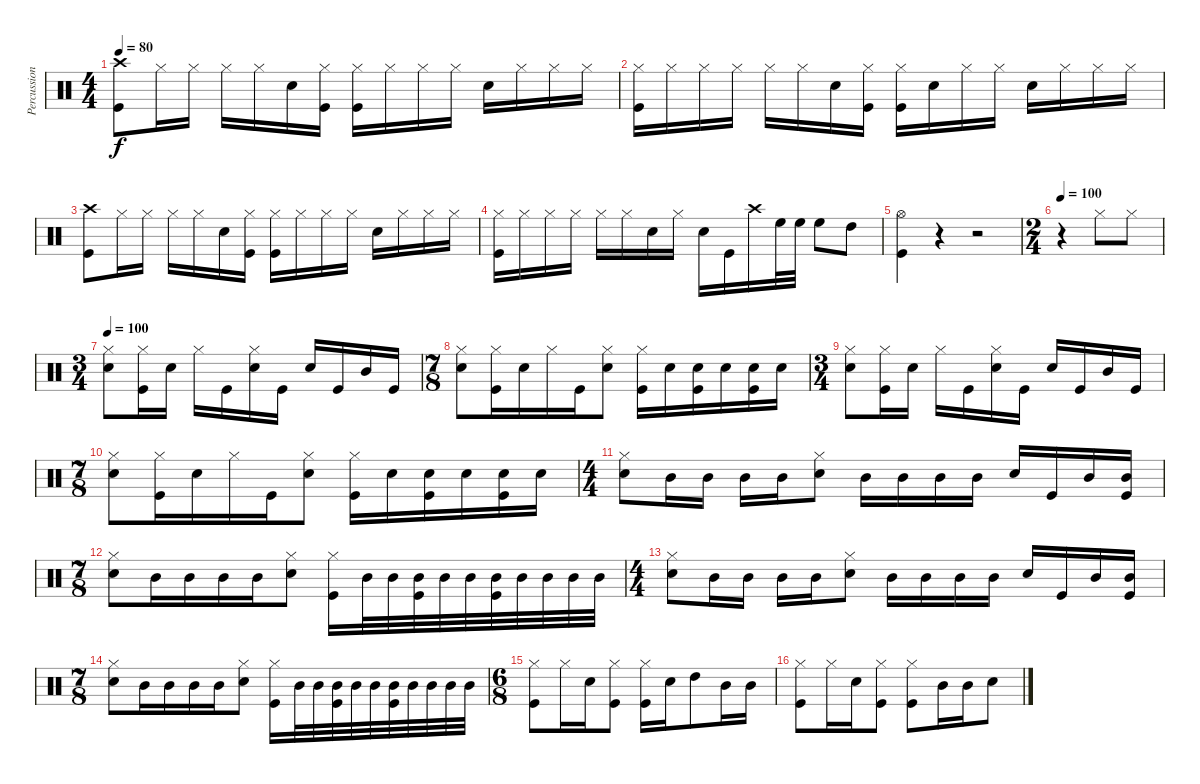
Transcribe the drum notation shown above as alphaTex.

\track ("Percussion" "Percussion") {instrument percussion}
\staff {score}
\articulation defaults
\ts (4 4)
\tempo 80
\clef neutral
\ks c
("Crash high (hit)" "Kick (hit)").8{dy f} "Hi-Hat (closed)".16 "Hi-Hat (closed)".16 "Hi-Hat (closed)".16 "Hi-Hat (closed)".16 "Snare (hit) 2".16 ("Hi-Hat (closed)" "Kick (hit)").16 ("Hi-Hat (closed)" "Kick (hit)").16 "Hi-Hat (closed)".16 "Hi-Hat (closed)".16 "Hi-Hat (closed)".16 "Snare (hit) 2".16 "Hi-Hat (closed)".16 "Hi-Hat (closed)".16 "Hi-Hat (closed)".16 |
("Hi-Hat (closed)" "Kick (hit)").16 "Hi-Hat (closed)".16 "Hi-Hat (closed)".16 "Hi-Hat (closed)".16 "Hi-Hat (closed)".16 "Hi-Hat (closed)".16 "Snare (hit) 2".16 ("Hi-Hat (closed)" "Kick (hit)").16 ("Hi-Hat (closed)" "Kick (hit)").16 "Snare (hit) 2".16 "Hi-Hat (closed)".16 "Hi-Hat (closed)".16 "Snare (hit) 2".16 "Hi-Hat (closed)".16 "Hi-Hat (closed)".16 "Hi-Hat (closed)".16 |
("Crash high (hit)" "Kick (hit)").8 "Hi-Hat (closed)".16 "Hi-Hat (closed)".16 "Hi-Hat (closed)".16 "Hi-Hat (closed)".16 "Snare (hit) 2".16 ("Hi-Hat (closed)" "Kick (hit)").16 ("Hi-Hat (closed)" "Kick (hit)").16 "Hi-Hat (closed)".16 "Hi-Hat (closed)".16 "Hi-Hat (closed)".16 "Snare (hit) 2".16 "Hi-Hat (closed)".16 "Hi-Hat (closed)".16 "Hi-Hat (closed)".16 |
("Hi-Hat (closed)" "Kick (hit)").16 "Hi-Hat (closed)".16 "Hi-Hat (closed)".16 "Hi-Hat (closed)".16 "Hi-Hat (closed)".16 "Hi-Hat (closed)".16 "Snare (hit) 2".16 "Hi-Hat (closed)".16 "Snare (hit) 2".16 "Kick (hit)".16 "Crash high (hit)".16 "High Floor Tom (hit)".32 "High Floor Tom (hit)".32 "High Floor Tom (hit)".8 "High Tom (hit)".8 |
("Hi-Hat (open)" "Kick (hit)").4 r.4 r.2 |
\ts (2 4)
\tempo 100
r.4 "Hi-Hat (closed)".8 "Hi-Hat (closed)".8 |
\ts (3 4)
\tempo 100
("Hi-Hat (closed)" "Snare (hit) 2").8 ("Hi-Hat (closed)" "Kick (hit)").16 "Snare (hit) 2".16 "Hi-Hat (closed)".16 "Kick (hit)".16 ("Hi-Hat (closed)" "Snare (hit) 2").16 "Kick (hit)".16 "Snare (hit) 2".16 "Kick (hit)".16 "Mid Tom (hit)".16 "Kick (hit)".16 |
\ts (7 8)
("Hi-Hat (closed)" "Snare (hit) 2").8 ("Hi-Hat (closed)" "Kick (hit)").16 "Snare (hit) 2".16 "Hi-Hat (closed)".16 "Kick (hit)".16 ("Hi-Hat (closed)" "Snare (hit) 2").8 ("Hi-Hat (closed)" "Kick (hit)").16 "Snare (hit) 2".16 ("Snare (hit) 2" "Kick (hit)").16 "Snare (hit) 2".16 ("Snare (hit) 2" "Kick (hit)").16 "Snare (hit) 2".16 |
\ts (3 4)
("Hi-Hat (closed)" "Snare (hit) 2").8 ("Hi-Hat (closed)" "Kick (hit)").16 "Snare (hit) 2".16 "Hi-Hat (closed)".16 "Kick (hit)".16 ("Hi-Hat (closed)" "Snare (hit) 2").16 "Kick (hit)".16 "Snare (hit) 2".16 "Kick (hit)".16 "Mid Tom (hit)".16 "Kick (hit)".16 |
\ts (7 8)
("Hi-Hat (closed)" "Snare (hit) 2").8 ("Hi-Hat (closed)" "Kick (hit)").16 "Snare (hit) 2".16 "Hi-Hat (closed)".16 "Kick (hit)".16 ("Hi-Hat (closed)" "Snare (hit) 2").8 ("Hi-Hat (closed)" "Kick (hit)").16 "Snare (hit) 2".16 ("Snare (hit) 2" "Kick (hit)").16 "Snare (hit) 2".16 ("Snare (hit) 2" "Kick (hit)").16 "Snare (hit) 2".16 |
\ts (4 4)
("Hi-Hat (closed)" "Snare (hit) 2").8 "Mid Tom (hit)".16 "Mid Tom (hit)".16 "Mid Tom (hit)".16 "Mid Tom (hit)".16 ("Hi-Hat (closed)" "Snare (hit) 2").8 "Mid Tom (hit)".16 "Mid Tom (hit)".16 "Mid Tom (hit)".16 "Mid Tom (hit)".16 "Snare (hit) 2".16 "Kick (hit)".16 "Mid Tom (hit)".16 ("Mid Tom (hit)" "Kick (hit)").16 |
\ts (7 8)
("Hi-Hat (closed)" "Snare (hit) 2").8 "Mid Tom (hit)".16 "Mid Tom (hit)".16 "Mid Tom (hit)".16 "Mid Tom (hit)".16 ("Hi-Hat (closed)" "Snare (hit) 2").8 ("Hi-Hat (closed)" "Kick (hit)").16 "Mid Tom (hit)".32 "Mid Tom (hit)".32 ("Mid Tom (hit)" "Kick (hit)").32 "Mid Tom (hit)".32 "Mid Tom (hit)".32 ("Mid Tom (hit)" "Kick (hit)").32 "Mid Tom (hit)".32 "Mid Tom (hit)".32 "Mid Tom (hit)".32 "Mid Tom (hit)".32 |
\ts (4 4)
("Hi-Hat (closed)" "Snare (hit) 2").8 "Mid Tom (hit)".16 "Mid Tom (hit)".16 "Mid Tom (hit)".16 "Mid Tom (hit)".16 ("Hi-Hat (closed)" "Snare (hit) 2").8 "Mid Tom (hit)".16 "Mid Tom (hit)".16 "Mid Tom (hit)".16 "Mid Tom (hit)".16 "Snare (hit) 2".16 "Kick (hit)".16 "Mid Tom (hit)".16 ("Mid Tom (hit)" "Kick (hit)").16 |
\ts (7 8)
("Hi-Hat (closed)" "Snare (hit) 2").8 "Mid Tom (hit)".16 "Mid Tom (hit)".16 "Mid Tom (hit)".16 "Mid Tom (hit)".16 ("Hi-Hat (closed)" "Snare (hit) 2").8 ("Hi-Hat (closed)" "Kick (hit)").16 "Mid Tom (hit)".32 "Mid Tom (hit)".32 ("Mid Tom (hit)" "Kick (hit)").32 "Mid Tom (hit)".32 "Mid Tom (hit)".32 ("Mid Tom (hit)" "Kick (hit)").32 "Mid Tom (hit)".32 "Mid Tom (hit)".32 "Mid Tom (hit)".32 "Mid Tom (hit)".32 |
\ts (6 8)
("Hi-Hat (closed)" "Kick (hit)").8 "Hi-Hat (closed)".16 "Snare (hit) 2".16 ("Hi-Hat (closed)" "Kick (hit)").8 ("Hi-Hat (closed)" "Kick (hit)").16 "Snare (hit) 2".16 "High Tom (hit)".8 "Mid Tom (hit)".16 "Mid Tom (hit)".16 |
("Hi-Hat (closed)" "Kick (hit)").8 "Hi-Hat (closed)".16 "Snare (hit) 2".16 ("Hi-Hat (closed)" "Kick (hit)").8 ("Hi-Hat (closed)" "Kick (hit)").8 "Mid Tom (hit)".16 "Mid Tom (hit)".16 "Snare (hit) 2".8
